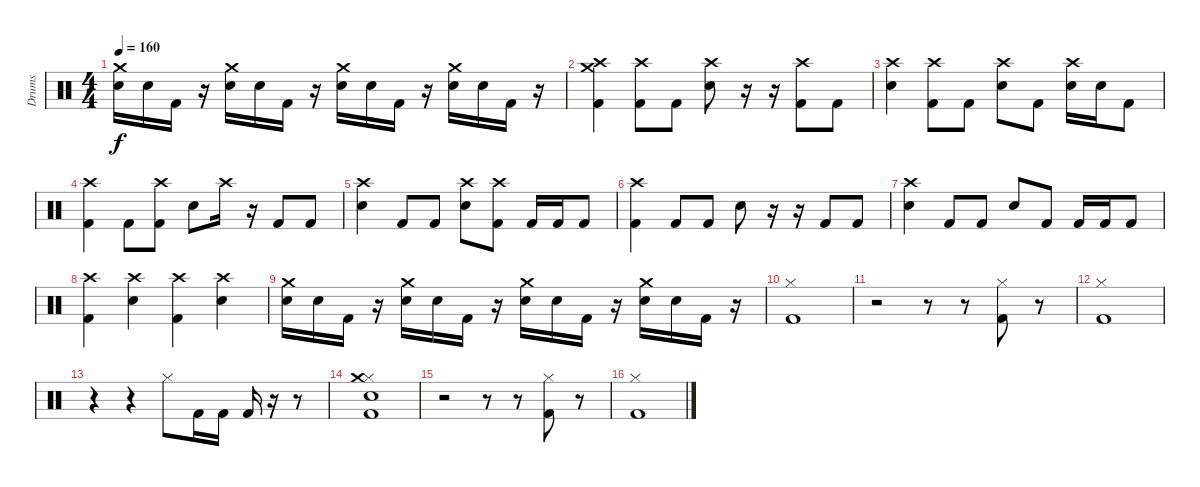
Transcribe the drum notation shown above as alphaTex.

\track ("Drums" "Drums") {instrument percussion}
\staff {score}
\articulation defaults
\ts (4 4)
\tempo 160
\clef neutral
\ks c
("Crash medium (hit)" "Snare (hit) 2").16{dy f} "Snare (hit) 2".16 "Kick (hit) 2".16 r.16 ("Crash medium (hit)" "Snare (hit) 2").16 "Snare (hit) 2".16 "Kick (hit) 2".16 r.16 ("Crash medium (hit)" "Snare (hit) 2").16 "Snare (hit) 2".16 "Kick (hit) 2".16 r.16 ("Crash medium (hit)" "Snare (hit) 2").16 "Snare (hit) 2".16 "Kick (hit) 2".16 r.16 |
("Crash high (hit)" "Crash medium (hit)" "Kick (hit) 2").4 ("Crash high (hit)" "Kick (hit) 2").8 "Kick (hit) 2".8 ("Crash high (hit)" "Snare (hit) 2").8 r.16 r.16 ("Crash high (hit)" "Kick (hit) 2").8 "Kick (hit) 2".8 |
("Crash high (hit)" "Snare (hit) 2").4 ("Crash high (hit)" "Kick (hit) 2").8 "Kick (hit) 2".8 ("Crash high (hit)" "Snare (hit) 2").8 "Kick (hit) 2".8 ("Crash high (hit)" "Snare (hit) 2").16 "Snare (hit) 2".16 "Kick (hit) 2".8 |
("Crash high (hit)" "Kick (hit) 2").4 "Kick (hit) 2".8 ("Crash high (hit)" "Kick (hit) 2").8 "Snare (hit) 2".8 "Crash high (hit)".16 r.16 "Kick (hit) 2".8 "Kick (hit) 2".8 |
("Crash high (hit)" "Snare (hit) 2").4 "Kick (hit) 2".8 "Kick (hit) 2".8 ("Crash high (hit)" "Snare (hit) 2").8 ("Crash high (hit)" "Kick (hit) 2").8 "Kick (hit) 2".16 "Kick (hit) 2".16 "Kick (hit) 2".8 |
("Crash high (hit)" "Kick (hit) 2").4 "Kick (hit) 2".8 "Kick (hit) 2".8 "Snare (hit) 2".8 r.16 r.16 "Kick (hit) 2".8 "Kick (hit) 2".8 |
("Crash high (hit)" "Snare (hit) 2").4 "Kick (hit) 2".8 "Kick (hit) 2".8 "Snare (hit) 2".8 "Kick (hit) 2".8 "Kick (hit) 2".16 "Kick (hit) 2".16 "Kick (hit) 2".8 |
("Crash high (hit)" "Kick (hit) 2").4 ("Crash high (hit)" "Snare (hit) 2").4 ("Crash high (hit)" "Kick (hit) 2").4 ("Crash high (hit)" "Snare (hit) 2").4 |
("Crash medium (hit)" "Snare (hit) 2").16 "Snare (hit) 2".16 "Kick (hit) 2".16 r.16 ("Crash medium (hit)" "Snare (hit) 2").16 "Snare (hit) 2".16 "Kick (hit) 2".16 r.16 ("Crash medium (hit)" "Snare (hit) 2").16 "Snare (hit) 2".16 "Kick (hit) 2".16 r.16 ("Crash medium (hit)" "Snare (hit) 2").16 "Snare (hit) 2".16 "Kick (hit) 2".16 r.16 |
("Hi-Hat (closed)" "Kick (hit) 2").1 |
r.2 r.8 r.8 ("Hi-Hat (closed)" "Kick (hit) 2").8 r.8 |
("Hi-Hat (closed)" "Kick (hit) 2").1 |
r.4 r.4 "Hi-Hat (closed)".8 "Kick (hit) 2".16 "Kick (hit) 2".16 "Kick (hit) 2".16 r.16 r.8 |
("Kick (hit) 2" "Hi-Hat (closed)" "Snare (hit) 2" "Crash medium (hit)").1 |
r.2 r.8 r.8 ("Hi-Hat (closed)" "Kick (hit) 2").8 r.8 |
("Hi-Hat (closed)" "Kick (hit) 2").1
